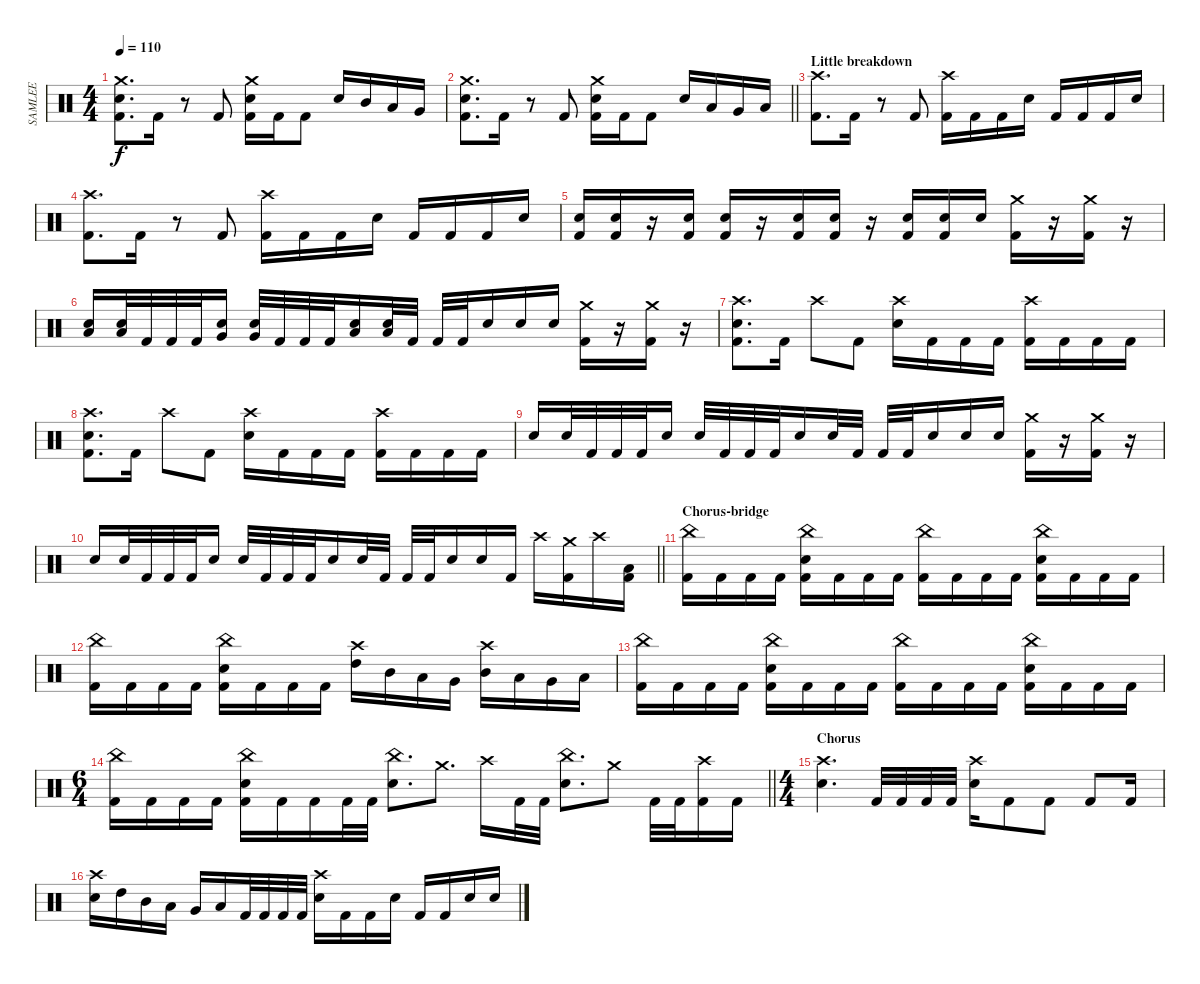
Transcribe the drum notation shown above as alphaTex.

\track ("SAMLEE" "SAMLEE") {instrument percussion}
\staff {score}
\articulation defaults
\ts (4 4)
\tempo 110
\clef neutral
\ks c
("Crash medium (hit)" "Snare (hit) 2" "Kick (hit) 2").8{d dy f} "Kick (hit) 2".16 r.8 "Kick (hit) 2".8 ("Crash medium (hit)" "Snare (hit) 2" "Kick (hit) 2").16 "Kick (hit) 2".16 "Kick (hit) 2".8 "Snare (hit) 2".16 "Mid Tom (hit)".16 "Low Tom (hit)".16 "Very Low Tom (hit)".16 |
\barLineRight lightlight
("Crash medium (hit)" "Snare (hit) 2" "Kick (hit) 2").8{d} "Kick (hit) 2".16 r.8 "Kick (hit) 2".8 ("Crash medium (hit)" "Snare (hit) 2" "Kick (hit) 2").16 "Kick (hit) 2".16 "Kick (hit) 2".8 "Snare (hit) 2".16 "Low Tom (hit)".16 "Very Low Tom (hit)".16 "Low Floor Tom (hit)".16 |
\section ("" "Little breakdown")
("Crash high (hit)" "Kick (hit) 2").8{d} "Kick (hit) 2".16 r.8 "Kick (hit) 2".8 ("Crash high (hit)" "Kick (hit) 2").16 "Kick (hit) 2".16 "Kick (hit) 2".16 "Snare (hit) 2".16 "Kick (hit) 2".16 "Kick (hit) 2".16 "Kick (hit) 2".16 "Snare (hit) 2".16 |
("Crash high (hit)" "Kick (hit) 2").8{d} "Kick (hit) 2".16 r.8 "Kick (hit) 2".8 ("Crash high (hit)" "Kick (hit) 2").16 "Kick (hit) 2".16 "Kick (hit) 2".16 "Snare (hit) 2".16 "Kick (hit) 2".16 "Kick (hit) 2".16 "Kick (hit) 2".16 "Snare (hit) 2".16 |
("Snare (hit) 2" "Kick (hit) 2").16 ("Snare (hit) 2" "Kick (hit) 2").16 r.16 ("Snare (hit) 2" "Kick (hit) 2").16 ("Snare (hit) 2" "Kick (hit) 2").16 r.16 ("Snare (hit) 2" "Kick (hit) 2").16 ("Snare (hit) 2" "Kick (hit) 2").16 r.16 ("Snare (hit) 2" "Kick (hit) 2").16 ("Snare (hit) 2" "Kick (hit) 2").16 "Snare (hit) 2".16 ("Crash medium (hit)" "Kick (hit) 2").16 r.16 ("Crash medium (hit)" "Kick (hit) 2").16 r.16 |
("Snare (hit) 2" "Low Tom (hit)").16 ("Snare (hit) 2" "Low Tom (hit)").32 "Kick (hit) 2".32 "Kick (hit) 2".32 "Kick (hit) 2".32 ("Snare (hit) 2" "Very Low Tom (hit)").16 ("Snare (hit) 2" "Very Low Tom (hit)").32 "Kick (hit) 2".32 "Kick (hit) 2".32 "Kick (hit) 2".32 ("Snare (hit) 2" "Low Floor Tom (hit)").16 ("Snare (hit) 2" "Low Floor Tom (hit)").32 "Kick (hit) 2".32 "Kick (hit) 2".32 "Kick (hit) 2".32 "Snare (hit) 2".16 "Snare (hit) 2".16 "Snare (hit) 2".16 ("Crash medium (hit)" "Kick (hit) 2").16 r.16 ("Crash medium (hit)" "Kick (hit) 2").16 r.16 |
("Crash high (hit)" "Snare (hit) 2" "Kick (hit) 2").8{d} "Kick (hit) 2".16 "Crash high (hit)".8 "Kick (hit) 2".8 ("Crash high (hit)" "Snare (hit) 2").16 "Kick (hit) 2".16 "Kick (hit) 2".16 "Kick (hit) 2".16 ("Crash high (hit)" "Kick (hit) 2").16 "Kick (hit) 2".16 "Kick (hit) 2".16 "Kick (hit) 2".16 |
("Crash high (hit)" "Snare (hit) 2" "Kick (hit) 2").8{d} "Kick (hit) 2".16 "Crash high (hit)".8 "Kick (hit) 2".8 ("Crash high (hit)" "Snare (hit) 2").16 "Kick (hit) 2".16 "Kick (hit) 2".16 "Kick (hit) 2".16 ("Crash high (hit)" "Kick (hit) 2").16 "Kick (hit) 2".16 "Kick (hit) 2".16 "Kick (hit) 2".16 |
"Snare (hit) 2".16 "Snare (hit) 2".32 "Kick (hit) 2".32 "Kick (hit) 2".32 "Kick (hit) 2".32 "Snare (hit) 2".16 "Snare (hit) 2".32 "Kick (hit) 2".32 "Kick (hit) 2".32 "Kick (hit) 2".32 "Snare (hit) 2".16 "Snare (hit) 2".32 "Kick (hit) 2".32 "Kick (hit) 2".32 "Kick (hit) 2".32 "Snare (hit) 2".16 "Snare (hit) 2".16 "Snare (hit) 2".16 ("Crash medium (hit)" "Kick (hit) 2").16 r.16 ("Crash medium (hit)" "Kick (hit) 2").16 r.16 |
\barLineRight lightlight "Snare (hit) 2".16 "Snare (hit) 2".32 "Kick (hit) 2".32 "Kick (hit) 2".32 "Kick (hit) 2".32 "Snare (hit) 2".16 "Snare (hit) 2".32 "Kick (hit) 2".32 "Kick (hit) 2".32 "Kick (hit) 2".32 "Snare (hit) 2".16 "Snare (hit) 2".32 "Kick (hit) 2".32 "Kick (hit) 2".32 "Kick (hit) 2".32 "Snare (hit) 2".16 "Snare (hit) 2".16 "Kick (hit) 2".16 "Crash high (hit)".16
("Crash medium (hit)" "Kick (hit) 2").16 "Crash high (hit)".16 ("Low Floor Tom (hit)" "Kick (hit) 2").16 |
\section ("" "Chorus-bridge")
("China (hit)" "Kick (hit) 2").16 "Kick (hit) 2".16 "Kick (hit) 2".16 "Kick (hit) 2".16 ("China (hit)" "Snare (hit) 2" "Kick (hit) 2").16 "Kick (hit) 2".16 "Kick (hit) 2".16 "Kick (hit) 2".16 ("China (hit)" "Kick (hit) 2").16 "Kick (hit) 2".16 "Kick (hit) 2".16 "Kick (hit) 2".16 ("China (hit)" "Snare (hit) 2" "Kick (hit) 2").16 "Kick (hit) 2".16 "Kick (hit) 2".16 "Kick (hit) 2".16 |
("China (hit)" "Kick (hit) 2").16 "Kick (hit) 2".16 "Kick (hit) 2".16 "Kick (hit) 2".16 ("China (hit)" "Snare (hit) 2" "Kick (hit) 2").16 "Kick (hit) 2".16 "Kick (hit) 2".16 "Kick (hit) 2".16 ("Crash high (hit)" "High Tom (hit)").16 "Mid Tom (hit)".16 "Low Tom (hit)".16 "Very Low Tom (hit)".16 ("Crash high (hit)" "Mid Tom (hit)").16 "Low Tom (hit)".16 "Very Low Tom (hit)".16 "Low Floor Tom (hit)".16 |
("China (hit)" "Kick (hit) 2").16 "Kick (hit) 2".16 "Kick (hit) 2".16 "Kick (hit) 2".16 ("China (hit)" "Snare (hit) 2" "Kick (hit) 2").16 "Kick (hit) 2".16 "Kick (hit) 2".16 "Kick (hit) 2".16 ("China (hit)" "Kick (hit) 2").16 "Kick (hit) 2".16 "Kick (hit) 2".16 "Kick (hit) 2".16 ("China (hit)" "Snare (hit) 2" "Kick (hit) 2").16 "Kick (hit) 2".16 "Kick (hit) 2".16 "Kick (hit) 2".16 |
\ts (6 4)
\barLineRight lightlight
("China (hit)" "Kick (hit) 2").16 "Kick (hit) 2".16 "Kick (hit) 2".16 "Kick (hit) 2".16 ("China (hit)" "Snare (hit) 2" "Kick (hit) 2").16 "Kick (hit) 2".16 "Kick (hit) 2".16 "Kick (hit) 2".32 "Kick (hit) 2".32 ("China (hit)" "Snare (hit) 2").8{d} "Crash medium (hit)".8{d} "Crash high (hit)".16 "Kick (hit) 2".32 "Kick (hit) 2".32 ("China (hit)" "Snare (hit) 2").8{d} "Crash medium (hit)".8 "Kick (hit) 2".32 "Kick (hit) 2".32 ("Crash high (hit)" "Kick (hit) 2").16 "Kick (hit) 2".16 |
\ts (4 4)
\section ("" "Chorus")
("Crash high (hit)" "Snare (hit) 2").4{d} "Kick (hit) 2".32 "Kick (hit) 2".32 "Kick (hit) 2".32 "Kick (hit) 2".32 ("Crash high (hit)" "Snare (hit) 2").16 "Kick (hit) 2".8 "Kick (hit) 2".8 "Kick (hit) 2".8 "Kick (hit) 2".16 |
("Crash high (hit)" "Snare (hit) 2").16 "High Tom (hit)".16 "Mid Tom (hit)".16 "Low Tom (hit)".16 "Very Low Tom (hit)".16 "Low Floor Tom (hit)".16 "Kick (hit) 2".32 "Kick (hit) 2".32 "Kick (hit) 2".32 "Kick (hit) 2".32 ("Crash high (hit)" "Snare (hit) 2").16 "Kick (hit) 2".16 "Kick (hit) 2".16 "Snare (hit) 2".16 "Kick (hit) 2".16 "Kick (hit) 2".16 "Snare (hit) 2".16 "Snare (hit) 2".16
